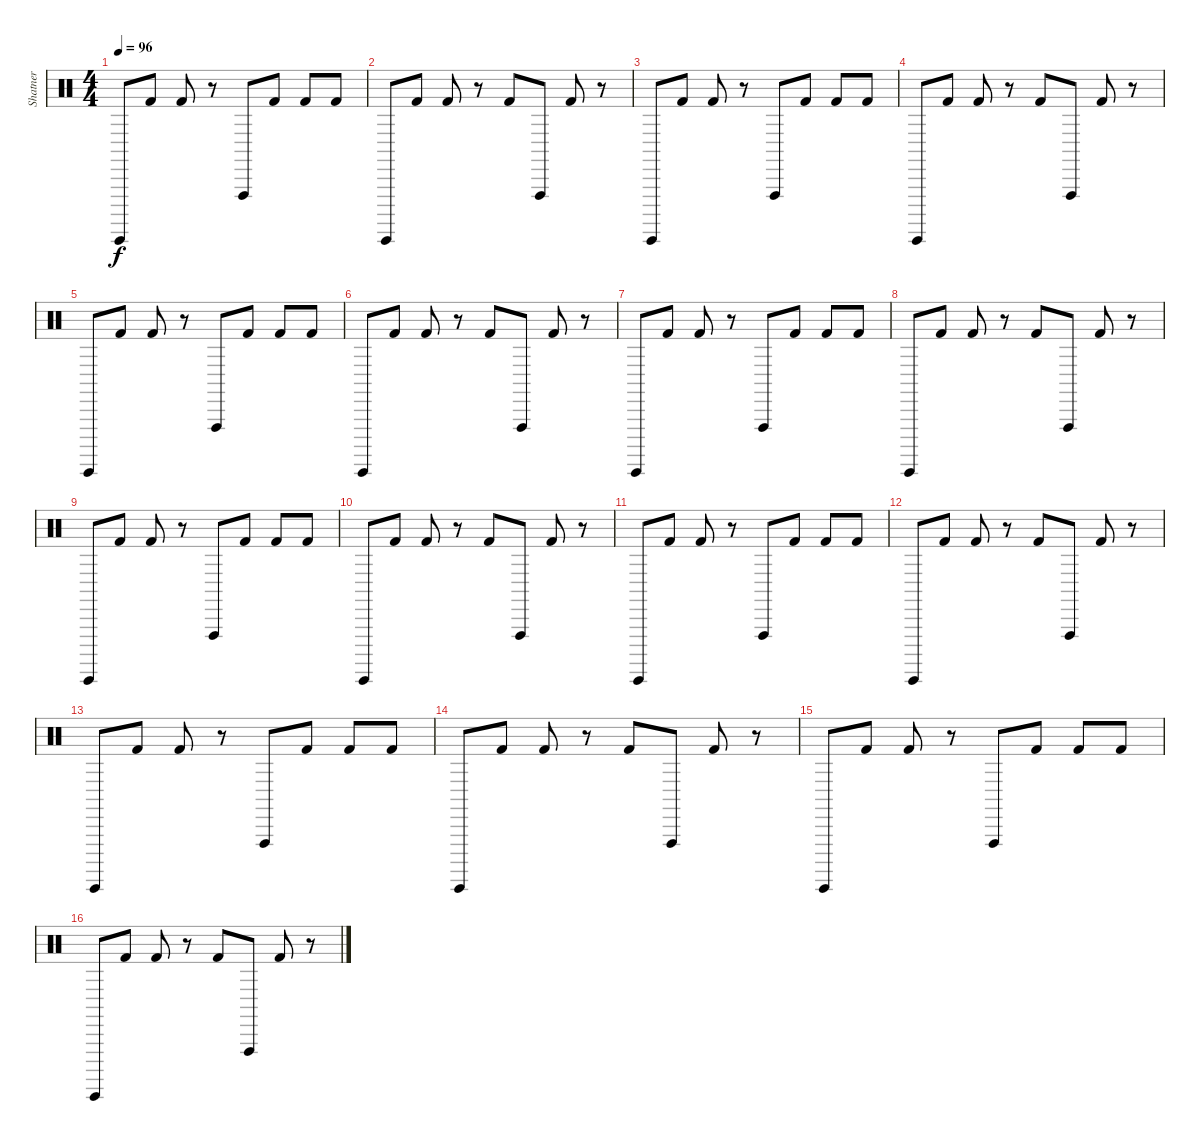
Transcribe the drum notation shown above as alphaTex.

\track ("Shatner" "Shatner") {instrument percussion}
\staff {score}
\articulation defaults
\ts (4 4)
\tempo 96
\clef neutral
\ks c "Guiro (hit)".8{dy f} "Kick (hit) 2".8 "Kick (hit) 2".8
r.8 "Vibraslap (hit)".8 "Kick (hit) 2".8 "Kick (hit) 2".8 "Kick (hit) 2".8 |
"Guiro (hit)".8 "Kick (hit) 2".8 "Kick (hit) 2".8 r.8 "Kick (hit) 2".8 "Vibraslap (hit)".8 "Kick (hit) 2".8 r.8 |
"Guiro (hit)".8 "Kick (hit) 2".8 "Kick (hit) 2".8 r.8 "Vibraslap (hit)".8 "Kick (hit) 2".8 "Kick (hit) 2".8 "Kick (hit) 2".8 |
"Guiro (hit)".8 "Kick (hit) 2".8 "Kick (hit) 2".8 r.8 "Kick (hit) 2".8 "Vibraslap (hit)".8 "Kick (hit) 2".8 r.8 |
"Guiro (hit)".8 "Kick (hit) 2".8 "Kick (hit) 2".8 r.8 "Vibraslap (hit)".8 "Kick (hit) 2".8 "Kick (hit) 2".8 "Kick (hit) 2".8 |
"Guiro (hit)".8 "Kick (hit) 2".8 "Kick (hit) 2".8 r.8 "Kick (hit) 2".8 "Vibraslap (hit)".8 "Kick (hit) 2".8 r.8 |
"Guiro (hit)".8 "Kick (hit) 2".8 "Kick (hit) 2".8 r.8 "Vibraslap (hit)".8 "Kick (hit) 2".8 "Kick (hit) 2".8 "Kick (hit) 2".8 |
"Guiro (hit)".8 "Kick (hit) 2".8 "Kick (hit) 2".8 r.8 "Kick (hit) 2".8 "Vibraslap (hit)".8 "Kick (hit) 2".8 r.8 |
"Guiro (hit)".8 "Kick (hit) 2".8 "Kick (hit) 2".8 r.8 "Vibraslap (hit)".8 "Kick (hit) 2".8 "Kick (hit) 2".8 "Kick (hit) 2".8 |
"Guiro (hit)".8 "Kick (hit) 2".8 "Kick (hit) 2".8 r.8 "Kick (hit) 2".8 "Vibraslap (hit)".8 "Kick (hit) 2".8 r.8 |
"Guiro (hit)".8 "Kick (hit) 2".8 "Kick (hit) 2".8 r.8 "Vibraslap (hit)".8 "Kick (hit) 2".8 "Kick (hit) 2".8 "Kick (hit) 2".8 |
"Guiro (hit)".8 "Kick (hit) 2".8 "Kick (hit) 2".8 r.8 "Kick (hit) 2".8 "Vibraslap (hit)".8 "Kick (hit) 2".8 r.8 |
"Guiro (hit)".8 "Kick (hit) 2".8 "Kick (hit) 2".8 r.8 "Vibraslap (hit)".8 "Kick (hit) 2".8 "Kick (hit) 2".8 "Kick (hit) 2".8 |
"Guiro (hit)".8 "Kick (hit) 2".8 "Kick (hit) 2".8 r.8 "Kick (hit) 2".8 "Vibraslap (hit)".8 "Kick (hit) 2".8 r.8 |
"Guiro (hit)".8 "Kick (hit) 2".8 "Kick (hit) 2".8 r.8 "Vibraslap (hit)".8 "Kick (hit) 2".8 "Kick (hit) 2".8 "Kick (hit) 2".8 |
"Guiro (hit)".8 "Kick (hit) 2".8 "Kick (hit) 2".8 r.8 "Kick (hit) 2".8 "Vibraslap (hit)".8 "Kick (hit) 2".8 r.8
